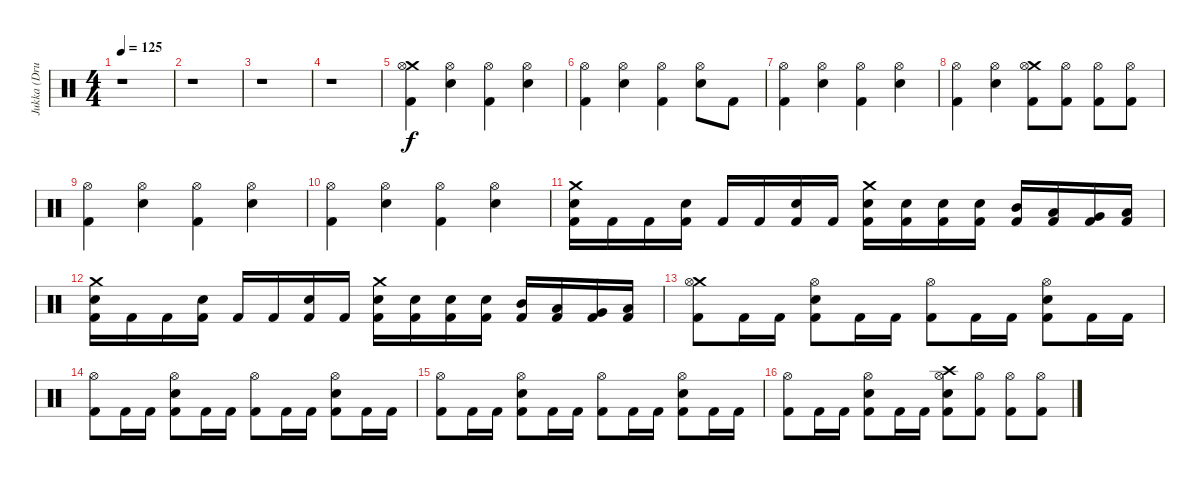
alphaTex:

\track ("Jukka (Drums)" "Jukka (Dru") {instrument percussion}
\staff {score}
\articulation defaults
\ts (4 4)
\tempo 125
\clef neutral
\ks c
r.1{dy f} |
r.1 |
r.1 |
r.1 |
("Crash medium (hit)" "Hi-Hat (open)" "Kick (hit) 2").4 ("Hi-Hat (open)" "Electric Snare (hit)").4 ("Hi-Hat (open)" "Kick (hit) 2").4 ("Hi-Hat (open)" "Electric Snare (hit)").4 |
("Hi-Hat (open)" "Kick (hit) 2").4 ("Hi-Hat (open)" "Electric Snare (hit)").4 ("Hi-Hat (open)" "Kick (hit) 2").4 ("Hi-Hat (open)" "Electric Snare (hit)").8 "Kick (hit) 2".8 |
("Hi-Hat (open)" "Kick (hit) 2").4 ("Hi-Hat (open)" "Electric Snare (hit)").4 ("Hi-Hat (open)" "Kick (hit) 2").4 ("Hi-Hat (open)" "Electric Snare (hit)").4 |
("Hi-Hat (open)" "Kick (hit) 2").4 ("Hi-Hat (open)" "Electric Snare (hit)").4 ("Crash medium (hit)" "Hi-Hat (open)" "Kick (hit) 2").8 ("Hi-Hat (open)" "Kick (hit) 2").8 ("Hi-Hat (open)" "Kick (hit) 2").8 ("Hi-Hat (open)" "Kick (hit) 2").8 |
("Hi-Hat (open)" "Kick (hit) 2").4 ("Hi-Hat (open)" "Electric Snare (hit)").4 ("Hi-Hat (open)" "Kick (hit) 2").4 ("Hi-Hat (open)" "Electric Snare (hit)").4 |
("Hi-Hat (open)" "Kick (hit) 2").4 ("Hi-Hat (open)" "Electric Snare (hit)").4 ("Hi-Hat (open)" "Kick (hit) 2").4 ("Hi-Hat (open)" "Electric Snare (hit)").4 |
("Crash medium (hit)" "Electric Snare (hit)" "Kick (hit) 2").16 "Kick (hit) 2".16 "Kick (hit) 2".16 ("Electric Snare (hit)" "Kick (hit) 2").16 "Kick (hit) 2".16 "Kick (hit) 2".16 ("Electric Snare (hit)" "Kick (hit) 2").16 "Kick (hit) 2".16 ("Crash medium (hit)" "Electric Snare (hit)" "Kick (hit) 2").16 ("Electric Snare (hit)" "Kick (hit) 2").16 ("Electric Snare (hit)" "Kick (hit) 2").16 ("Electric Snare (hit)" "Kick (hit) 2").16 ("Mid Tom (hit)" "Kick (hit) 2").16 ("Low Tom (hit)" "Kick (hit) 2").16 ("Very Low Tom (hit)" "Kick (hit) 2").16 ("Low Floor Tom (hit)" "Kick (hit) 2").16 |
("Crash medium (hit)" "Electric Snare (hit)" "Kick (hit) 2").16 "Kick (hit) 2".16 "Kick (hit) 2".16 ("Electric Snare (hit)" "Kick (hit) 2").16 "Kick (hit) 2".16 "Kick (hit) 2".16 ("Electric Snare (hit)" "Kick (hit) 2").16 "Kick (hit) 2".16 ("Crash medium (hit)" "Electric Snare (hit)" "Kick (hit) 2").16 ("Electric Snare (hit)" "Kick (hit) 2").16 ("Electric Snare (hit)" "Kick (hit) 2").16 ("Electric Snare (hit)" "Kick (hit) 2").16 ("Mid Tom (hit)" "Kick (hit) 2").16 ("Low Tom (hit)" "Kick (hit) 2").16 ("Very Low Tom (hit)" "Kick (hit) 2").16 ("Low Floor Tom (hit)" "Kick (hit) 2").16 |
("Crash medium (hit)" "Hi-Hat (open)" "Kick (hit) 2").8 "Kick (hit) 2".16 "Kick (hit) 2".16 ("Hi-Hat (open)" "Electric Snare (hit)" "Kick (hit) 2").8 "Kick (hit) 2".16 "Kick (hit) 2".16 ("Hi-Hat (open)" "Kick (hit) 2").8 "Kick (hit) 2".16 "Kick (hit) 2".16 ("Hi-Hat (open)" "Electric Snare (hit)" "Kick (hit) 2").8 "Kick (hit) 2".16 "Kick (hit) 2".16 |
("Hi-Hat (open)" "Kick (hit) 2").8 "Kick (hit) 2".16 "Kick (hit) 2".16 ("Hi-Hat (open)" "Electric Snare (hit)" "Kick (hit) 2").8 "Kick (hit) 2".16 "Kick (hit) 2".16 ("Hi-Hat (open)" "Kick (hit) 2").8 "Kick (hit) 2".16 "Kick (hit) 2".16 ("Hi-Hat (open)" "Electric Snare (hit)" "Kick (hit) 2").8 "Kick (hit) 2".16 "Kick (hit) 2".16 |
("Hi-Hat (open)" "Kick (hit) 2").8 "Kick (hit) 2".16 "Kick (hit) 2".16 ("Hi-Hat (open)" "Electric Snare (hit)" "Kick (hit) 2").8 "Kick (hit) 2".16 "Kick (hit) 2".16 ("Hi-Hat (open)" "Kick (hit) 2").8 "Kick (hit) 2".16 "Kick (hit) 2".16 ("Hi-Hat (open)" "Electric Snare (hit)" "Kick (hit) 2").8 "Kick (hit) 2".16 "Kick (hit) 2".16 |
("Hi-Hat (open)" "Kick (hit) 2").8 "Kick (hit) 2".16 "Kick (hit) 2".16 ("Hi-Hat (open)" "Electric Snare (hit)" "Kick (hit) 2").8 "Kick (hit) 2".16 "Kick (hit) 2".16 ("Crash high (hit)" "Hi-Hat (open)" "Electric Snare (hit)" "Kick (hit) 2").8 ("Hi-Hat (open)" "Kick (hit) 2").8 ("Hi-Hat (open)" "Kick (hit) 2").8 ("Hi-Hat (open)" "Kick (hit) 2").8
